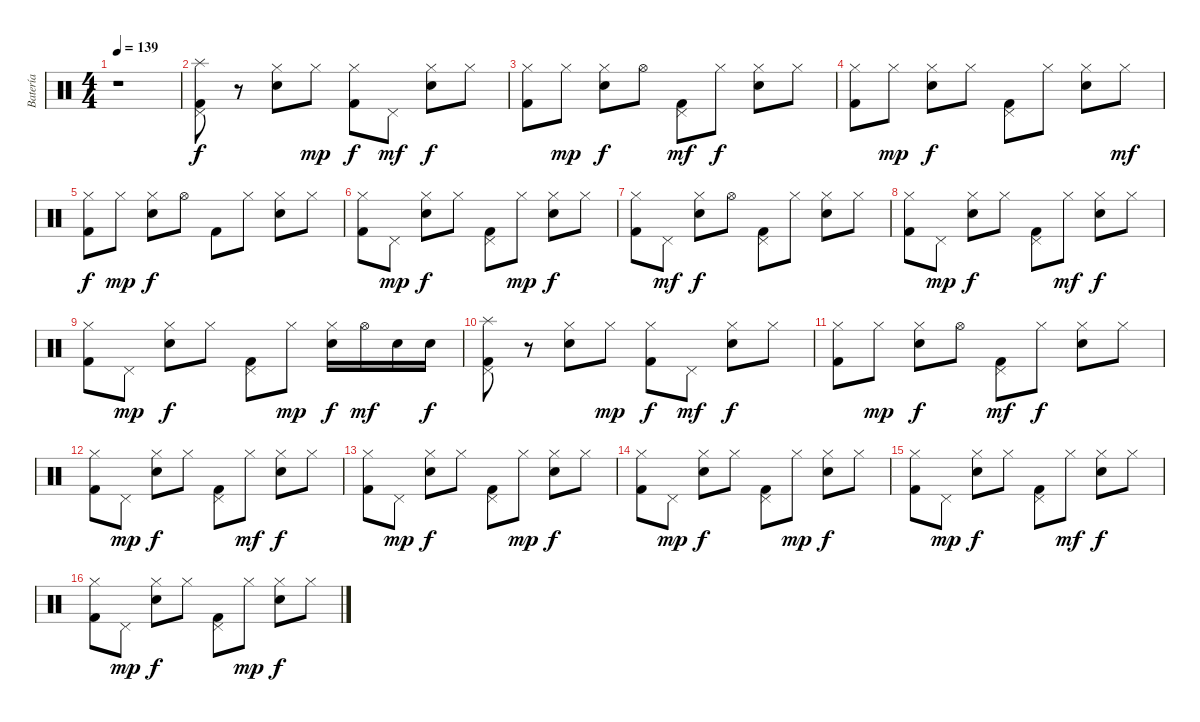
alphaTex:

\track ("Batería" "Batería") {instrument percussion}
\staff {score}
\articulation defaults
\ts (4 4)
\tempo 139
\clef neutral
\ks c
r.1{dy f} |
("Splash (hit)" "Pedal Hi-Hat (hit)" "Kick (hit) 2").8 r.8 ("Hi-Hat (closed)" "Snare (hit) 2").8 "Hi-Hat (closed)".8{dy mp} ("Hi-Hat (closed)" "Kick (hit) 2").8{dy f} "Pedal Hi-Hat (hit)".8{dy mf} ("Hi-Hat (closed)" "Snare (hit) 2").8{dy f} "Hi-Hat (closed)".8 |
("Hi-Hat (closed)" "Kick (hit) 2").8 "Hi-Hat (closed)".8{dy mp} ("Hi-Hat (closed)" "Snare (hit) 2").8{dy f} "Hi-Hat (open)".8 ("Pedal Hi-Hat (hit)" "Kick (hit) 2").8{dy mf} "Hi-Hat (closed)".8{dy f} ("Hi-Hat (closed)" "Snare (hit) 2").8 "Hi-Hat (closed)".8 |
("Hi-Hat (closed)" "Kick (hit) 2").8 "Hi-Hat (closed)".8{dy mp} ("Hi-Hat (closed)" "Snare (hit) 2").8{dy f} "Hi-Hat (closed)".8 ("Pedal Hi-Hat (hit)" "Kick (hit) 2").8 "Hi-Hat (closed)".8 ("Hi-Hat (closed)" "Snare (hit) 2").8 "Hi-Hat (closed)".8{dy mf} |
("Hi-Hat (closed)" "Kick (hit) 2").8{dy f} "Hi-Hat (closed)".8{dy mp} ("Hi-Hat (closed)" "Snare (hit) 2").8{dy f} "Hi-Hat (open)".8 "Kick (hit) 2".8 "Hi-Hat (closed)".8 ("Hi-Hat (closed)" "Snare (hit) 2").8 "Hi-Hat (closed)".8 |
("Hi-Hat (closed)" "Kick (hit) 2").8 "Pedal Hi-Hat (hit)".8{dy mp} ("Hi-Hat (closed)" "Snare (hit) 2").8{dy f} "Hi-Hat (closed)".8 ("Pedal Hi-Hat (hit)" "Kick (hit) 2").8 "Hi-Hat (closed)".8{dy mp} ("Hi-Hat (closed)" "Snare (hit) 2").8{dy f} "Hi-Hat (closed)".8 |
("Hi-Hat (closed)" "Kick (hit) 2").8 "Pedal Hi-Hat (hit)".8{dy mf} ("Hi-Hat (closed)" "Snare (hit) 2").8{dy f} "Hi-Hat (open)".8 ("Pedal Hi-Hat (hit)" "Kick (hit) 2").8 "Hi-Hat (closed)".8 ("Hi-Hat (closed)" "Snare (hit) 2").8 "Hi-Hat (closed)".8 |
("Hi-Hat (closed)" "Kick (hit) 2").8 "Pedal Hi-Hat (hit)".8{dy mp} ("Hi-Hat (closed)" "Snare (hit) 2").8{dy f} "Hi-Hat (closed)".8 ("Pedal Hi-Hat (hit)" "Kick (hit) 2").8 "Hi-Hat (closed)".8{dy mf} ("Hi-Hat (closed)" "Snare (hit) 2").8{dy f} "Hi-Hat (closed)".8 |
("Hi-Hat (closed)" "Kick (hit) 2").8 "Pedal Hi-Hat (hit)".8{dy mp} ("Hi-Hat (closed)" "Snare (hit) 2").8{dy f} "Hi-Hat (closed)".8 ("Pedal Hi-Hat (hit)" "Kick (hit) 2").8 "Hi-Hat (closed)".8{dy mp} ("Hi-Hat (closed)" "Snare (hit) 2").16{dy f} "Hi-Hat (open)".16{dy mf} "Snare (hit) 2".16 "Snare (hit) 2".16{dy f} |
("Splash (hit)" "Pedal Hi-Hat (hit)" "Kick (hit) 2").8 r.8 ("Hi-Hat (closed)" "Snare (hit) 2").8 "Hi-Hat (closed)".8{dy mp} ("Hi-Hat (closed)" "Kick (hit) 2").8{dy f} "Pedal Hi-Hat (hit)".8{dy mf} ("Hi-Hat (closed)" "Snare (hit) 2").8{dy f} "Hi-Hat (closed)".8 |
("Hi-Hat (closed)" "Kick (hit) 2").8 "Hi-Hat (closed)".8{dy mp} ("Hi-Hat (closed)" "Snare (hit) 2").8{dy f} "Hi-Hat (open)".8 ("Pedal Hi-Hat (hit)" "Kick (hit) 2").8{dy mf} "Hi-Hat (closed)".8{dy f} ("Hi-Hat (closed)" "Snare (hit) 2").8 "Hi-Hat (closed)".8 |
("Hi-Hat (closed)" "Kick (hit) 2").8 "Pedal Hi-Hat (hit)".8{dy mp} ("Hi-Hat (closed)" "Snare (hit) 2").8{dy f} "Hi-Hat (closed)".8 ("Pedal Hi-Hat (hit)" "Kick (hit) 2").8 "Hi-Hat (closed)".8{dy mf} ("Hi-Hat (closed)" "Snare (hit) 2").8{dy f} "Hi-Hat (closed)".8 |
("Hi-Hat (closed)" "Kick (hit) 2").8 "Pedal Hi-Hat (hit)".8{dy mp} ("Hi-Hat (closed)" "Snare (hit) 2").8{dy f} "Hi-Hat (closed)".8 ("Pedal Hi-Hat (hit)" "Kick (hit) 2").8 "Hi-Hat (closed)".8{dy mp} ("Hi-Hat (closed)" "Snare (hit) 2").8{dy f} "Hi-Hat (closed)".8 |
("Hi-Hat (closed)" "Kick (hit) 2").8 "Pedal Hi-Hat (hit)".8{dy mp} ("Hi-Hat (closed)" "Snare (hit) 2").8{dy f} "Hi-Hat (closed)".8 ("Pedal Hi-Hat (hit)" "Kick (hit) 2").8 "Hi-Hat (closed)".8{dy mp} ("Hi-Hat (closed)" "Snare (hit) 2").8{dy f} "Hi-Hat (closed)".8 |
("Hi-Hat (closed)" "Kick (hit) 2").8 "Pedal Hi-Hat (hit)".8{dy mp} ("Hi-Hat (closed)" "Snare (hit) 2").8{dy f} "Hi-Hat (closed)".8 ("Pedal Hi-Hat (hit)" "Kick (hit) 2").8 "Hi-Hat (closed)".8{dy mf} ("Hi-Hat (closed)" "Snare (hit) 2").8{dy f} "Hi-Hat (closed)".8 |
("Hi-Hat (closed)" "Kick (hit) 2").8 "Pedal Hi-Hat (hit)".8{dy mp} ("Hi-Hat (closed)" "Snare (hit) 2").8{dy f} "Hi-Hat (closed)".8 ("Pedal Hi-Hat (hit)" "Kick (hit) 2").8 "Hi-Hat (closed)".8{dy mp} ("Hi-Hat (closed)" "Snare (hit) 2").8{dy f} "Hi-Hat (closed)".8
